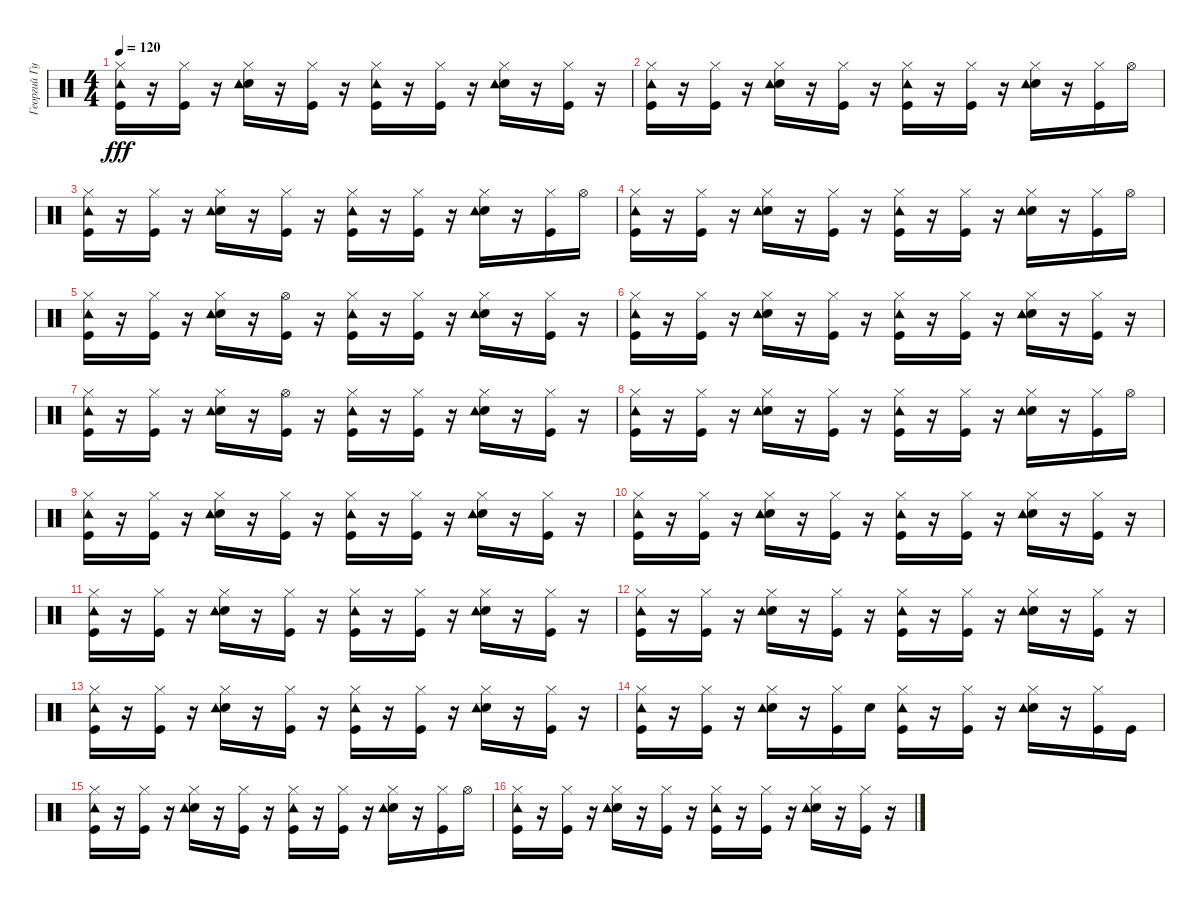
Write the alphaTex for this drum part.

\track ("Георгий Гурьянов (ударные)" "Георгий Гу") {instrument percussion}
\staff {score}
\articulation defaults
\ts (4 4)
\tempo 120
\clef neutral
\ks c
("Kick (hit)" "Hi-Hat (closed)" "Tambourine (hit)").16{dy fff} r.16 ("Kick (hit)" "Hi-Hat (closed)").16 r.16 ("Snare (hit) 2" "Hi-Hat (closed)" "Tambourine (hit)").16 r.16 ("Kick (hit)" "Hi-Hat (closed)").16 r.16 ("Kick (hit)" "Hi-Hat (closed)" "Tambourine (hit)").16 r.16 ("Kick (hit)" "Hi-Hat (closed)").16 r.16 ("Snare (hit) 2" "Hi-Hat (closed)" "Tambourine (hit)").16 r.16 ("Kick (hit)" "Hi-Hat (closed)").16 r.16 |
("Kick (hit)" "Hi-Hat (closed)" "Tambourine (hit)").16 r.16 ("Kick (hit)" "Hi-Hat (closed)").16 r.16 ("Snare (hit) 2" "Hi-Hat (closed)" "Tambourine (hit)").16 r.16 ("Kick (hit)" "Hi-Hat (closed)").16 r.16 ("Kick (hit)" "Hi-Hat (closed)" "Tambourine (hit)").16 r.16 ("Kick (hit)" "Hi-Hat (closed)").16 r.16 ("Snare (hit) 2" "Hi-Hat (closed)" "Tambourine (hit)").16 r.16 ("Kick (hit)" "Hi-Hat (closed)").16 "Hi-Hat (open)".16 |
("Kick (hit)" "Hi-Hat (closed)" "Tambourine (hit)").16 r.16 ("Kick (hit)" "Hi-Hat (closed)").16 r.16 ("Snare (hit) 2" "Hi-Hat (closed)" "Tambourine (hit)").16 r.16 ("Kick (hit)" "Hi-Hat (closed)").16 r.16 ("Kick (hit)" "Hi-Hat (closed)" "Tambourine (hit)").16 r.16 ("Kick (hit)" "Hi-Hat (closed)").16 r.16 ("Snare (hit) 2" "Hi-Hat (closed)" "Tambourine (hit)").16 r.16 ("Kick (hit)" "Hi-Hat (closed)").16 "Hi-Hat (open)".16 |
("Kick (hit)" "Hi-Hat (closed)" "Tambourine (hit)").16 r.16 ("Kick (hit)" "Hi-Hat (closed)").16 r.16 ("Snare (hit) 2" "Hi-Hat (closed)" "Tambourine (hit)").16 r.16 ("Kick (hit)" "Hi-Hat (closed)").16 r.16 ("Kick (hit)" "Hi-Hat (closed)" "Tambourine (hit)").16 r.16 ("Kick (hit)" "Hi-Hat (closed)").16 r.16 ("Snare (hit) 2" "Hi-Hat (closed)" "Tambourine (hit)").16 r.16 ("Kick (hit)" "Hi-Hat (closed)").16 "Hi-Hat (open)".16 |
("Kick (hit)" "Hi-Hat (closed)" "Tambourine (hit)").16 r.16 ("Kick (hit)" "Hi-Hat (closed)").16 r.16 ("Snare (hit) 2" "Hi-Hat (closed)" "Tambourine (hit)").16 r.16 ("Kick (hit)" "Hi-Hat (open)").16 r.16 ("Kick (hit)" "Hi-Hat (closed)" "Tambourine (hit)").16 r.16 ("Kick (hit)" "Hi-Hat (closed)").16 r.16 ("Snare (hit) 2" "Hi-Hat (closed)" "Tambourine (hit)").16 r.16 ("Kick (hit)" "Hi-Hat (closed)").16 r.16 |
("Kick (hit)" "Hi-Hat (closed)" "Tambourine (hit)").16 r.16 ("Kick (hit)" "Hi-Hat (closed)").16 r.16 ("Snare (hit) 2" "Hi-Hat (closed)" "Tambourine (hit)").16 r.16 ("Kick (hit)" "Hi-Hat (closed)").16 r.16 ("Kick (hit)" "Hi-Hat (closed)" "Tambourine (hit)").16 r.16 ("Kick (hit)" "Hi-Hat (closed)").16 r.16 ("Snare (hit) 2" "Hi-Hat (closed)" "Tambourine (hit)").16 r.16 ("Kick (hit)" "Hi-Hat (closed)").16 r.16 |
("Kick (hit)" "Hi-Hat (closed)" "Tambourine (hit)").16 r.16 ("Kick (hit)" "Hi-Hat (closed)").16 r.16 ("Snare (hit) 2" "Hi-Hat (closed)" "Tambourine (hit)").16 r.16 ("Kick (hit)" "Hi-Hat (open)").16 r.16 ("Kick (hit)" "Hi-Hat (closed)" "Tambourine (hit)").16 r.16 ("Kick (hit)" "Hi-Hat (closed)").16 r.16 ("Snare (hit) 2" "Hi-Hat (closed)" "Tambourine (hit)").16 r.16 ("Kick (hit)" "Hi-Hat (closed)").16 r.16 |
("Kick (hit)" "Hi-Hat (closed)" "Tambourine (hit)").16 r.16 ("Kick (hit)" "Hi-Hat (closed)").16 r.16 ("Snare (hit) 2" "Hi-Hat (closed)" "Tambourine (hit)").16 r.16 ("Kick (hit)" "Hi-Hat (closed)").16 r.16 ("Kick (hit)" "Hi-Hat (closed)" "Tambourine (hit)").16 r.16 ("Kick (hit)" "Hi-Hat (closed)").16 r.16 ("Snare (hit) 2" "Hi-Hat (closed)" "Tambourine (hit)").16 r.16 ("Kick (hit)" "Hi-Hat (closed)").16 "Hi-Hat (open)".16 |
("Kick (hit)" "Hi-Hat (closed)" "Tambourine (hit)").16 r.16 ("Kick (hit)" "Hi-Hat (closed)").16 r.16 ("Snare (hit) 2" "Hi-Hat (closed)" "Tambourine (hit)").16 r.16 ("Kick (hit)" "Hi-Hat (closed)").16 r.16 ("Kick (hit)" "Hi-Hat (closed)" "Tambourine (hit)").16 r.16 ("Kick (hit)" "Hi-Hat (closed)").16 r.16 ("Snare (hit) 2" "Hi-Hat (closed)" "Tambourine (hit)").16 r.16 ("Kick (hit)" "Hi-Hat (closed)").16 r.16 |
("Kick (hit)" "Hi-Hat (closed)" "Tambourine (hit)").16 r.16 ("Kick (hit)" "Hi-Hat (closed)").16 r.16 ("Snare (hit) 2" "Hi-Hat (closed)" "Tambourine (hit)").16 r.16 ("Kick (hit)" "Hi-Hat (closed)").16 r.16 ("Kick (hit)" "Hi-Hat (closed)" "Tambourine (hit)").16 r.16 ("Kick (hit)" "Hi-Hat (closed)").16 r.16 ("Snare (hit) 2" "Hi-Hat (closed)" "Tambourine (hit)").16 r.16 ("Kick (hit)" "Hi-Hat (closed)").16 r.16 |
("Kick (hit)" "Hi-Hat (closed)" "Tambourine (hit)").16 r.16 ("Kick (hit)" "Hi-Hat (closed)").16 r.16 ("Snare (hit) 2" "Hi-Hat (closed)" "Tambourine (hit)").16 r.16 ("Kick (hit)" "Hi-Hat (closed)").16 r.16 ("Kick (hit)" "Hi-Hat (closed)" "Tambourine (hit)").16 r.16 ("Kick (hit)" "Hi-Hat (closed)").16 r.16 ("Snare (hit) 2" "Hi-Hat (closed)" "Tambourine (hit)").16 r.16 ("Kick (hit)" "Hi-Hat (closed)").16 r.16 |
("Kick (hit)" "Hi-Hat (closed)" "Tambourine (hit)").16 r.16 ("Kick (hit)" "Hi-Hat (closed)").16 r.16 ("Snare (hit) 2" "Hi-Hat (closed)" "Tambourine (hit)").16 r.16 ("Kick (hit)" "Hi-Hat (closed)").16 r.16 ("Kick (hit)" "Hi-Hat (closed)" "Tambourine (hit)").16 r.16 ("Kick (hit)" "Hi-Hat (closed)").16 r.16 ("Snare (hit) 2" "Hi-Hat (closed)" "Tambourine (hit)").16 r.16 ("Kick (hit)" "Hi-Hat (closed)").16 r.16 |
("Kick (hit)" "Hi-Hat (closed)" "Tambourine (hit)").16 r.16 ("Kick (hit)" "Hi-Hat (closed)").16 r.16 ("Snare (hit) 2" "Hi-Hat (closed)" "Tambourine (hit)").16 r.16 ("Kick (hit)" "Hi-Hat (closed)").16 r.16 ("Kick (hit)" "Hi-Hat (closed)" "Tambourine (hit)").16 r.16 ("Kick (hit)" "Hi-Hat (closed)").16 r.16 ("Snare (hit) 2" "Hi-Hat (closed)" "Tambourine (hit)").16 r.16 ("Kick (hit)" "Hi-Hat (closed)").16 r.16 |
("Kick (hit)" "Hi-Hat (closed)" "Tambourine (hit)").16 r.16 ("Kick (hit)" "Hi-Hat (closed)").16 r.16 ("Snare (hit) 2" "Hi-Hat (closed)" "Tambourine (hit)").16 r.16 ("Kick (hit)" "Hi-Hat (closed)").16 "Snare (hit) 2".16 ("Kick (hit)" "Hi-Hat (closed)" "Tambourine (hit)").16 r.16 ("Kick (hit)" "Hi-Hat (closed)").16 r.16 ("Snare (hit) 2" "Hi-Hat (closed)" "Tambourine (hit)").16 r.16 ("Kick (hit)" "Hi-Hat (closed)").16 "Kick (hit)".16 |
("Kick (hit)" "Hi-Hat (closed)" "Tambourine (hit)").16 r.16 ("Kick (hit)" "Hi-Hat (closed)").16 r.16 ("Snare (hit) 2" "Hi-Hat (closed)" "Tambourine (hit)").16 r.16 ("Kick (hit)" "Hi-Hat (closed)").16 r.16 ("Kick (hit)" "Hi-Hat (closed)" "Tambourine (hit)").16 r.16 ("Kick (hit)" "Hi-Hat (closed)").16 r.16 ("Snare (hit) 2" "Hi-Hat (closed)" "Tambourine (hit)").16 r.16 ("Kick (hit)" "Hi-Hat (closed)").16 "Hi-Hat (open)".16 |
("Kick (hit)" "Hi-Hat (closed)" "Tambourine (hit)").16 r.16 ("Kick (hit)" "Hi-Hat (closed)").16 r.16 ("Snare (hit) 2" "Hi-Hat (closed)" "Tambourine (hit)").16 r.16 ("Kick (hit)" "Hi-Hat (closed)").16 r.16 ("Kick (hit)" "Hi-Hat (closed)" "Tambourine (hit)").16 r.16 ("Kick (hit)" "Hi-Hat (closed)").16 r.16 ("Snare (hit) 2" "Hi-Hat (closed)" "Tambourine (hit)").16 r.16 ("Kick (hit)" "Hi-Hat (closed)").16 r.16
